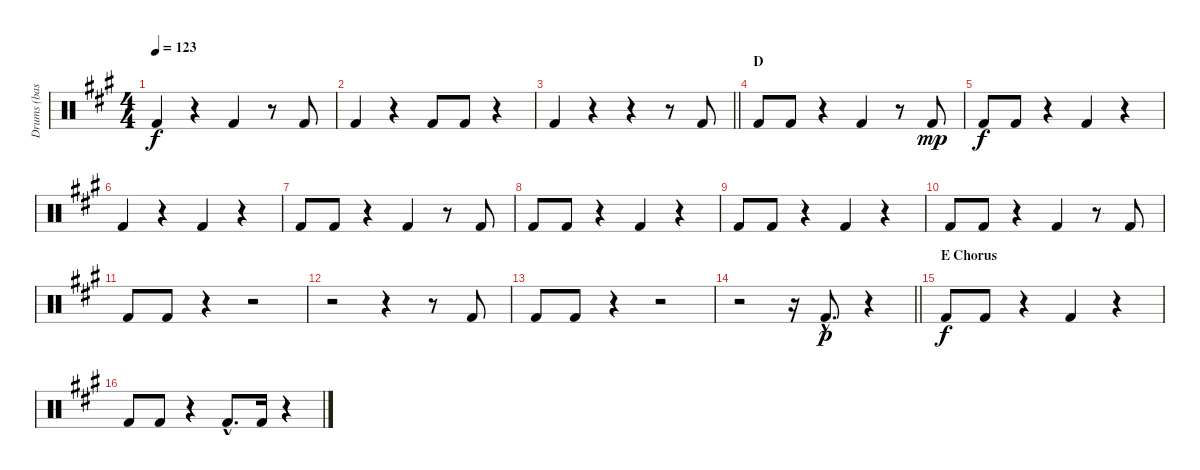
\track ("Drums (bass Drums)" "Drums (bas") {instrument percussion}
\staff {score}
\articulation defaults
\ts (4 4)
\tempo 123
\clef neutral
\ks a "Kick (hit) 2".4{dy f}
r.4 "Kick (hit) 2".4 r.8 "Kick (hit) 2".8 |
"Kick (hit) 2".4 r.4 "Kick (hit) 2".8 "Kick (hit) 2".8 r.4 |
\barLineRight lightlight "Kick (hit) 2".4
r.4 r.4 r.8 "Kick (hit) 2".8 |
\section ("" "D")
"Kick (hit) 2".8 "Kick (hit) 2".8 r.4 "Kick (hit) 2".4 r.8 "Kick (hit) 2".8{dy mp} |
"Kick (hit) 2".8{dy f} "Kick (hit) 2".8 r.4 "Kick (hit) 2".4 r.4 |
"Kick (hit) 2".4 r.4 "Kick (hit) 2".4 r.4 |
"Kick (hit) 2".8 "Kick (hit) 2".8 r.4 "Kick (hit) 2".4 r.8 "Kick (hit) 2".8 |
"Kick (hit) 2".8 "Kick (hit) 2".8 r.4 "Kick (hit) 2".4 r.4 |
"Kick (hit) 2".8 "Kick (hit) 2".8 r.4 "Kick (hit) 2".4 r.4 |
"Kick (hit) 2".8 "Kick (hit) 2".8 r.4 "Kick (hit) 2".4 r.8 "Kick (hit) 2".8 |
"Kick (hit) 2".8 "Kick (hit) 2".8 r.4 r.2 |
r.2 r.4 r.8 "Kick (hit) 2".8 |
"Kick (hit) 2".8 "Kick (hit) 2".8 r.4 r.2 |
\barLineRight lightlight
r.2 r.16 "Kick (hit) 2"{hac}.8{d dy p} r.4 |
\section ("" "E Chorus")
"Kick (hit) 2".8{dy f} "Kick (hit) 2".8 r.4 "Kick (hit) 2".4 r.4 |
"Kick (hit) 2".8 "Kick (hit) 2".8 r.4 "Kick (hit) 2"{hac}.8{d} "Kick (hit) 2".16 r.4
